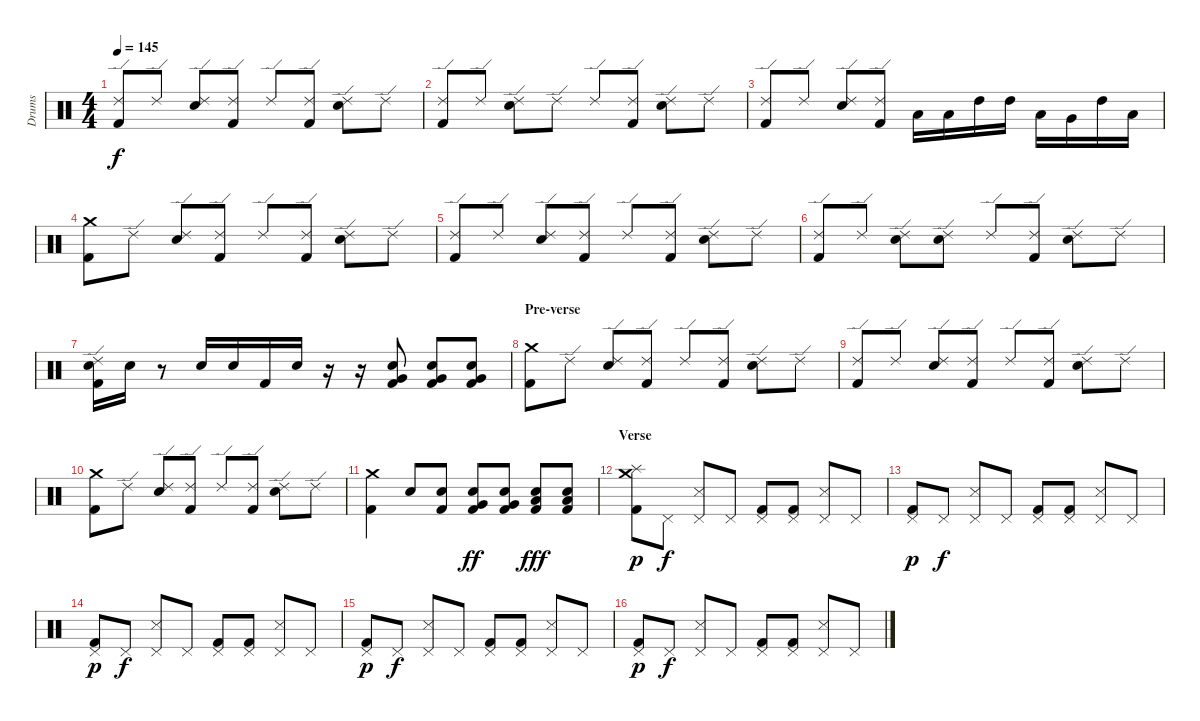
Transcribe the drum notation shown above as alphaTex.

\track ("Drums" "Drums") {instrument percussion}
\staff {score}
\articulation defaults
\ts (4 4)
\tempo 145
\clef neutral
\ks c
("Ride (edge) 2" "Kick (hit) 2").8{dy f} "Ride (edge) 2".8 ("Ride (edge) 2" "Electric Snare (hit)").8 ("Ride (edge) 2" "Kick (hit) 2").8 "Ride (edge) 2".8 ("Ride (edge) 2" "Kick (hit) 2").8 ("Ride (edge) 2" "Electric Snare (hit)").8 "Ride (edge) 2".8 |
("Ride (edge) 2" "Kick (hit) 2").8 "Ride (edge) 2".8 ("Ride (edge) 2" "Electric Snare (hit)").8 "Ride (edge) 2".8 "Ride (edge) 2".8 ("Ride (edge) 2" "Kick (hit) 2").8 ("Ride (edge) 2" "Electric Snare (hit)").8 "Ride (edge) 2".8 |
("Ride (edge) 2" "Kick (hit) 2").8 "Ride (edge) 2".8 ("Ride (edge) 2" "Electric Snare (hit)").8 ("Ride (edge) 2" "Kick (hit) 2").8 "Low Tom (hit)".16 "Low Tom (hit)".16 "High Tom (hit)".16 "High Tom (hit)".16 "Low Tom (hit)".16 "Very Low Tom (hit)".16 "High Tom (hit)".16 "Low Tom (hit)".16 |
("Crash medium (hit)" "Kick (hit) 2").8 "Ride (edge) 2".8 ("Ride (edge) 2" "Electric Snare (hit)").8 ("Ride (edge) 2" "Kick (hit) 2").8 "Ride (edge) 2".8 ("Ride (edge) 2" "Kick (hit) 2").8 ("Ride (edge) 2" "Electric Snare (hit)").8 "Ride (edge) 2".8 |
("Ride (edge) 2" "Kick (hit) 2").8 "Ride (edge) 2".8 ("Ride (edge) 2" "Electric Snare (hit)").8 ("Ride (edge) 2" "Kick (hit) 2").8 "Ride (edge) 2".8 ("Ride (edge) 2" "Kick (hit) 2").8 ("Ride (edge) 2" "Electric Snare (hit)").8 "Ride (edge) 2".8 |
("Ride (edge) 2" "Kick (hit) 2").8 "Ride (edge) 2".8 ("Ride (edge) 2" "Electric Snare (hit)").8 ("Ride (edge) 2" "Electric Snare (hit)").8 "Ride (edge) 2".8 ("Ride (edge) 2" "Kick (hit) 2").8 ("Ride (edge) 2" "Electric Snare (hit)").8 "Ride (edge) 2".8 |
("Ride (edge) 2" "Electric Snare (hit)" "Kick (hit) 2").16 "Electric Snare (hit)".16 r.8 "Electric Snare (hit)".16 "Electric Snare (hit)".16 "Kick (hit) 2".16 "Electric Snare (hit)".16 r.16 r.16 ("Electric Snare (hit)" "Very Low Tom (hit)" "Kick (hit) 2").8 ("Electric Snare (hit)" "Very Low Tom (hit)" "Kick (hit) 2").8 ("Electric Snare (hit)" "Very Low Tom (hit)" "Kick (hit) 2").8 |
\section ("" "Pre-verse")
("Crash medium (hit)" "Kick (hit) 2").8 "Ride (edge) 2".8 ("Ride (edge) 2" "Electric Snare (hit)").8 ("Ride (edge) 2" "Kick (hit) 2").8 "Ride (edge) 2".8 ("Ride (edge) 2" "Kick (hit) 2").8 ("Ride (edge) 2" "Electric Snare (hit)").8 "Ride (edge) 2".8 |
("Ride (edge) 2" "Kick (hit) 2").8 "Ride (edge) 2".8 ("Ride (edge) 2" "Electric Snare (hit)").8 ("Ride (edge) 2" "Kick (hit) 2").8 "Ride (edge) 2".8 ("Ride (edge) 2" "Kick (hit) 2").8 ("Ride (edge) 2" "Electric Snare (hit)").8 "Ride (edge) 2".8 |
("Crash medium (hit)" "Kick (hit) 2").8 "Ride (edge) 2".8 ("Ride (edge) 2" "Electric Snare (hit)").8 ("Ride (edge) 2" "Kick (hit) 2").8 "Ride (edge) 2".8 ("Ride (edge) 2" "Kick (hit) 2").8 ("Ride (edge) 2" "Electric Snare (hit)").8 "Ride (edge) 2".8 |
("Crash medium (hit)" "Kick (hit) 2").4 "Electric Snare (hit)".8 ("Electric Snare (hit)" "Kick (hit) 2").8 ("Electric Snare (hit)" "Very Low Tom (hit)" "Kick (hit) 2").8{dy ff} ("Electric Snare (hit)" "Very Low Tom (hit)" "Kick (hit) 2").8 ("Electric Snare (hit)" "Low Tom (hit)" "Kick (hit) 2").8{dy fff} ("Electric Snare (hit)" "Low Tom (hit)" "Kick (hit) 2").8 |
\section ("" "Verse")
("Crash medium (hit)" "Splash (hit)" "Kick (hit) 2").8{dy p} "Pedal Hi-Hat (hit)".8{dy f} ("Pedal Hi-Hat (hit)" "Snare (side stick) 3").8 "Pedal Hi-Hat (hit)".8 ("Pedal Hi-Hat (hit)" "Kick (hit) 2").8 ("Pedal Hi-Hat (hit)" "Kick (hit) 2").8 ("Pedal Hi-Hat (hit)" "Snare (side stick) 3").8 "Pedal Hi-Hat (hit)".8 |
("Pedal Hi-Hat (hit)" "Kick (hit) 2").8{dy p} "Pedal Hi-Hat (hit)".8{dy f} ("Pedal Hi-Hat (hit)" "Snare (side stick) 3").8 "Pedal Hi-Hat (hit)".8 ("Pedal Hi-Hat (hit)" "Kick (hit) 2").8 ("Pedal Hi-Hat (hit)" "Kick (hit) 2").8 ("Pedal Hi-Hat (hit)" "Snare (side stick) 3").8 "Pedal Hi-Hat (hit)".8 |
("Pedal Hi-Hat (hit)" "Kick (hit) 2").8{dy p} "Pedal Hi-Hat (hit)".8{dy f} ("Pedal Hi-Hat (hit)" "Snare (side stick) 3").8 "Pedal Hi-Hat (hit)".8 ("Pedal Hi-Hat (hit)" "Kick (hit) 2").8 ("Pedal Hi-Hat (hit)" "Kick (hit) 2").8 ("Pedal Hi-Hat (hit)" "Snare (side stick) 3").8 "Pedal Hi-Hat (hit)".8 |
("Pedal Hi-Hat (hit)" "Kick (hit) 2").8{dy p} "Pedal Hi-Hat (hit)".8{dy f} ("Pedal Hi-Hat (hit)" "Snare (side stick) 3").8 "Pedal Hi-Hat (hit)".8 ("Pedal Hi-Hat (hit)" "Kick (hit) 2").8 ("Pedal Hi-Hat (hit)" "Kick (hit) 2").8 ("Pedal Hi-Hat (hit)" "Snare (side stick) 3").8 "Pedal Hi-Hat (hit)".8 |
("Pedal Hi-Hat (hit)" "Kick (hit) 2").8{dy p} "Pedal Hi-Hat (hit)".8{dy f} ("Pedal Hi-Hat (hit)" "Snare (side stick) 3").8 "Pedal Hi-Hat (hit)".8 ("Pedal Hi-Hat (hit)" "Kick (hit) 2").8 ("Pedal Hi-Hat (hit)" "Kick (hit) 2").8 ("Pedal Hi-Hat (hit)" "Snare (side stick) 3").8 "Pedal Hi-Hat (hit)".8
